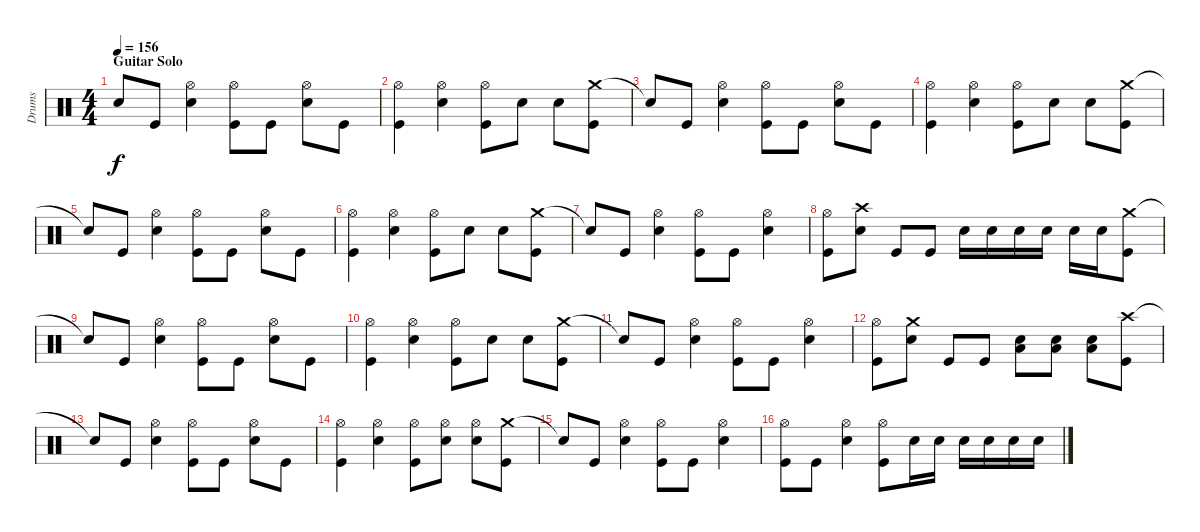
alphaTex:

\track ("Drums" "Drums") {instrument percussion}
\staff {score}
\articulation defaults
\ts (4 4)
\section ("" "Guitar Solo")
\tempo 156
\clef neutral
\ks c "Snare (hit)"{t}.8{dy f} "Kick (hit)".8
("Hi-Hat (open)" "Electric Snare (hit)").4 ("Hi-Hat (open)" "Kick (hit)").8 "Kick (hit)".8 ("Hi-Hat (open)" "Electric Snare (hit)").8 "Kick (hit)".8 |
("Kick (hit)" "Hi-Hat (open)").4 ("Electric Snare (hit)" "Hi-Hat (open)").4 ("Kick (hit)" "Hi-Hat (open)").8 "Electric Snare (hit)".8 "Electric Snare (hit)".8 ("Crash medium (hit)" "Kick (hit)").8 |
"Snare (hit)"{t}.8 "Kick (hit)".8 ("Electric Snare (hit)" "Hi-Hat (open)").4 ("Kick (hit)" "Hi-Hat (open)").8 "Kick (hit)".8 ("Electric Snare (hit)" "Hi-Hat (open)").8 "Kick (hit)".8 |
("Kick (hit)" "Hi-Hat (open)").4 ("Electric Snare (hit)" "Hi-Hat (open)").4 ("Kick (hit)" "Hi-Hat (open)").8 "Electric Snare (hit)".8 "Electric Snare (hit)".8 ("Crash medium (hit)" "Kick (hit)").8 |
"Snare (hit)"{t}.8 "Kick (hit)".8 ("Electric Snare (hit)" "Hi-Hat (open)").4 ("Kick (hit)" "Hi-Hat (open)").8 "Kick (hit)".8 ("Electric Snare (hit)" "Hi-Hat (open)").8 "Kick (hit)".8 |
("Kick (hit)" "Hi-Hat (open)").4 ("Electric Snare (hit)" "Hi-Hat (open)").4 ("Kick (hit)" "Hi-Hat (open)").8 "Electric Snare (hit)".8 "Electric Snare (hit)".8 ("Crash medium (hit)" "Kick (hit)").8 |
"Snare (hit)"{t}.8 "Kick (hit)".8 ("Electric Snare (hit)" "Hi-Hat (open)").4 ("Kick (hit)" "Hi-Hat (open)").8 "Kick (hit)".8 ("Electric Snare (hit)" "Hi-Hat (open)").4 |
("Kick (hit)" "Hi-Hat (open)").8 ("Crash high (hit)" "Electric Snare (hit)").8 "Kick (hit)".8 "Kick (hit)".8 "Electric Snare (hit)".16 "Electric Snare (hit)".16 "Electric Snare (hit)".16 "Electric Snare (hit)".16 "Electric Snare (hit)".16 "Electric Snare (hit)".16 ("Crash medium (hit)" "Kick (hit)").8 |
"Snare (hit)"{t}.8 "Kick (hit)".8 ("Electric Snare (hit)" "Hi-Hat (open)").4 ("Kick (hit)" "Hi-Hat (open)").8 "Kick (hit)".8 ("Electric Snare (hit)" "Hi-Hat (open)").8 "Kick (hit)".8 |
("Kick (hit)" "Hi-Hat (open)").4 ("Electric Snare (hit)" "Hi-Hat (open)").4 ("Kick (hit)" "Hi-Hat (open)").8 "Electric Snare (hit)".8 "Electric Snare (hit)".8 ("Crash medium (hit)" "Kick (hit)").8 |
"Snare (hit)"{t}.8 "Kick (hit)".8 ("Electric Snare (hit)" "Hi-Hat (open)").4 ("Kick (hit)" "Hi-Hat (open)").8 "Kick (hit)".8 ("Electric Snare (hit)" "Hi-Hat (open)").4 |
("Hi-Hat (open)" "Kick (hit)").8 ("Electric Snare (hit)" "Crash medium (hit)").8 "Kick (hit)".8 "Kick (hit)".8 ("Electric Snare (hit)" "Low Tom (hit)").8 ("Low Tom (hit)" "Electric Snare (hit)").8 ("Electric Snare (hit)" "Low Tom (hit)").8 ("Crash high (hit)" "Kick (hit)").8 |
"Snare (hit)"{t}.8 "Kick (hit)".8 ("Hi-Hat (open)" "Electric Snare (hit)").4 ("Hi-Hat (open)" "Kick (hit)").8 "Kick (hit)".8 ("Hi-Hat (open)" "Electric Snare (hit)").8 "Kick (hit)".8 |
("Kick (hit)" "Hi-Hat (open)").4 ("Electric Snare (hit)" "Hi-Hat (open)").4 ("Hi-Hat (open)" "Kick (hit)").8 ("Hi-Hat (open)" "Electric Snare (hit)").8 ("Hi-Hat (open)" "Electric Snare (hit)").8 ("Crash medium (hit)" "Kick (hit)").8 |
"Snare (hit)"{t}.8 "Kick (hit)".8 ("Electric Snare (hit)" "Hi-Hat (open)").4 ("Kick (hit)" "Hi-Hat (open)").8 "Kick (hit)".8 ("Electric Snare (hit)" "Hi-Hat (open)").4 |
("Kick (hit)" "Hi-Hat (open)").8 "Kick (hit)".8 ("Electric Snare (hit)" "Hi-Hat (open)").4 ("Kick (hit)" "Hi-Hat (open)").8 "Electric Snare (hit)".16 "Electric Snare (hit)".16 "Electric Snare (hit)".16 "Electric Snare (hit)".16 "Electric Snare (hit)".16 "Electric Snare (hit)".16
